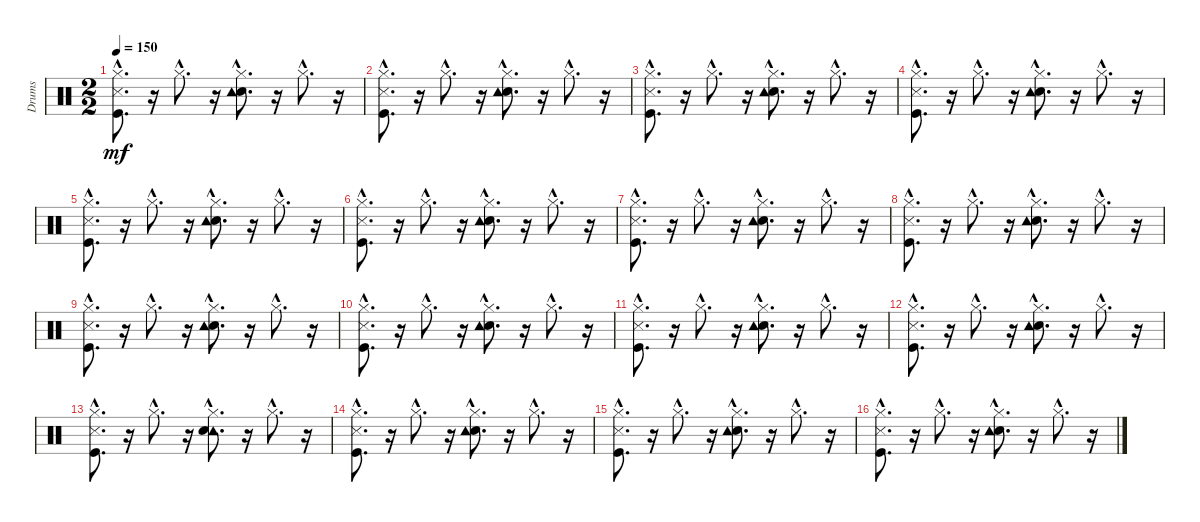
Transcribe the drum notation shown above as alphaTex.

\track ("Drums" "Drums") {instrument percussion}
\staff {score}
\articulation defaults
\ts (2 2)
\tempo 150
\clef neutral
\ks c
("Metronome (hit)"{hac} "Kick (hit)"{hac} "Hi-Hat (closed)"{hac}).8{d dy mf} r.16 "Hi-Hat (closed)"{hac}.8{d} r.16 ("Electric Snare (hit)"{hac} "Tambourine (hit)"{hac} "Hi-Hat (closed)"{hac}).8{d} r.16 "Hi-Hat (closed)"{hac}.8{d} r.16 |
("Metronome (hit)"{hac} "Kick (hit)"{hac} "Hi-Hat (closed)"{hac}).8{d} r.16 "Hi-Hat (closed)"{hac}.8{d} r.16 ("Electric Snare (hit)"{hac} "Tambourine (hit)"{hac} "Hi-Hat (closed)"{hac}).8{d} r.16 "Hi-Hat (closed)"{hac}.8{d} r.16 |
("Metronome (hit)"{hac} "Kick (hit)"{hac} "Hi-Hat (closed)"{hac}).8{d} r.16 "Hi-Hat (closed)"{hac}.8{d} r.16 ("Electric Snare (hit)"{hac} "Tambourine (hit)"{hac} "Hi-Hat (closed)"{hac}).8{d} r.16 "Hi-Hat (closed)"{hac}.8{d} r.16 |
("Metronome (hit)"{hac} "Kick (hit)"{hac} "Hi-Hat (closed)"{hac}).8{d} r.16 "Hi-Hat (closed)"{hac}.8{d} r.16 ("Electric Snare (hit)"{hac} "Tambourine (hit)"{hac} "Hi-Hat (closed)"{hac}).8{d} r.16 "Hi-Hat (closed)"{hac}.8{d} r.16 |
("Metronome (hit)"{hac} "Kick (hit)"{hac} "Hi-Hat (closed)"{hac}).8{d} r.16 "Hi-Hat (closed)"{hac}.8{d} r.16 ("Electric Snare (hit)"{hac} "Tambourine (hit)"{hac} "Hi-Hat (closed)"{hac}).8{d} r.16 "Hi-Hat (closed)"{hac}.8{d} r.16 |
("Metronome (hit)"{hac} "Kick (hit)"{hac} "Hi-Hat (closed)"{hac}).8{d} r.16 "Hi-Hat (closed)"{hac}.8{d} r.16 ("Electric Snare (hit)"{hac} "Tambourine (hit)"{hac} "Hi-Hat (closed)"{hac}).8{d} r.16 "Hi-Hat (closed)"{hac}.8{d} r.16 |
("Metronome (hit)"{hac} "Kick (hit)"{hac} "Hi-Hat (closed)"{hac}).8{d} r.16 "Hi-Hat (closed)"{hac}.8{d} r.16 ("Electric Snare (hit)"{hac} "Tambourine (hit)"{hac} "Hi-Hat (closed)"{hac}).8{d} r.16 "Hi-Hat (closed)"{hac}.8{d} r.16 |
("Metronome (hit)"{hac} "Kick (hit)"{hac} "Hi-Hat (closed)"{hac}).8{d} r.16 "Hi-Hat (closed)"{hac}.8{d} r.16 ("Electric Snare (hit)"{hac} "Tambourine (hit)"{hac} "Hi-Hat (closed)"{hac}).8{d} r.16 "Hi-Hat (closed)"{hac}.8{d} r.16 |
("Metronome (hit)"{hac} "Kick (hit)"{hac} "Hi-Hat (closed)"{hac}).8{d} r.16 "Hi-Hat (closed)"{hac}.8{d} r.16 ("Electric Snare (hit)"{hac} "Tambourine (hit)"{hac} "Hi-Hat (closed)"{hac}).8{d} r.16 "Hi-Hat (closed)"{hac}.8{d} r.16 |
("Metronome (hit)"{hac} "Kick (hit)"{hac} "Hi-Hat (closed)"{hac}).8{d} r.16 "Hi-Hat (closed)"{hac}.8{d} r.16 ("Electric Snare (hit)"{hac} "Tambourine (hit)"{hac} "Hi-Hat (closed)"{hac}).8{d} r.16 "Hi-Hat (closed)"{hac}.8{d} r.16 |
("Metronome (hit)"{hac} "Kick (hit)"{hac} "Hi-Hat (closed)"{hac}).8{d} r.16 "Hi-Hat (closed)"{hac}.8{d} r.16 ("Hi-Hat (closed)"{hac} "Electric Snare (hit)"{hac} "Tambourine (hit)"{hac}).8{d} r.16 "Hi-Hat (closed)"{hac}.8{d} r.16 |
("Metronome (hit)"{hac} "Kick (hit)"{hac} "Hi-Hat (closed)"{hac}).8{d} r.16 "Hi-Hat (closed)"{hac}.8{d} r.16 ("Electric Snare (hit)"{hac} "Tambourine (hit)"{hac} "Hi-Hat (closed)"{hac}).8{d} r.16 "Hi-Hat (closed)"{hac}.8{d} r.16 |
("Metronome (hit)"{hac} "Kick (hit)"{hac} "Hi-Hat (closed)"{hac}).8{d} r.16 "Hi-Hat (closed)"{hac}.8{d} r.16 ("Tambourine (hit)"{hac} "Electric Snare (hit)"{hac} "Hi-Hat (closed)"{hac}).8{d} r.16 "Hi-Hat (closed)"{hac}.8{d} r.16 |
("Metronome (hit)"{hac} "Kick (hit)"{hac} "Hi-Hat (closed)"{hac}).8{d} r.16 "Hi-Hat (closed)"{hac}.8{d} r.16 ("Electric Snare (hit)"{hac} "Tambourine (hit)"{hac} "Hi-Hat (closed)"{hac}).8{d} r.16 "Hi-Hat (closed)"{hac}.8{d} r.16 |
("Metronome (hit)"{hac} "Kick (hit)"{hac} "Hi-Hat (closed)"{hac}).8{d} r.16 "Hi-Hat (closed)"{hac}.8{d} r.16 ("Electric Snare (hit)"{hac} "Tambourine (hit)"{hac} "Hi-Hat (closed)"{hac}).8{d} r.16 "Hi-Hat (closed)"{hac}.8{d} r.16 |
("Metronome (hit)"{hac} "Kick (hit)"{hac} "Hi-Hat (closed)"{hac}).8{d} r.16 "Hi-Hat (closed)"{hac}.8{d} r.16 ("Electric Snare (hit)"{hac} "Tambourine (hit)"{hac} "Hi-Hat (closed)"{hac}).8{d} r.16 "Hi-Hat (closed)"{hac}.8{d} r.16
